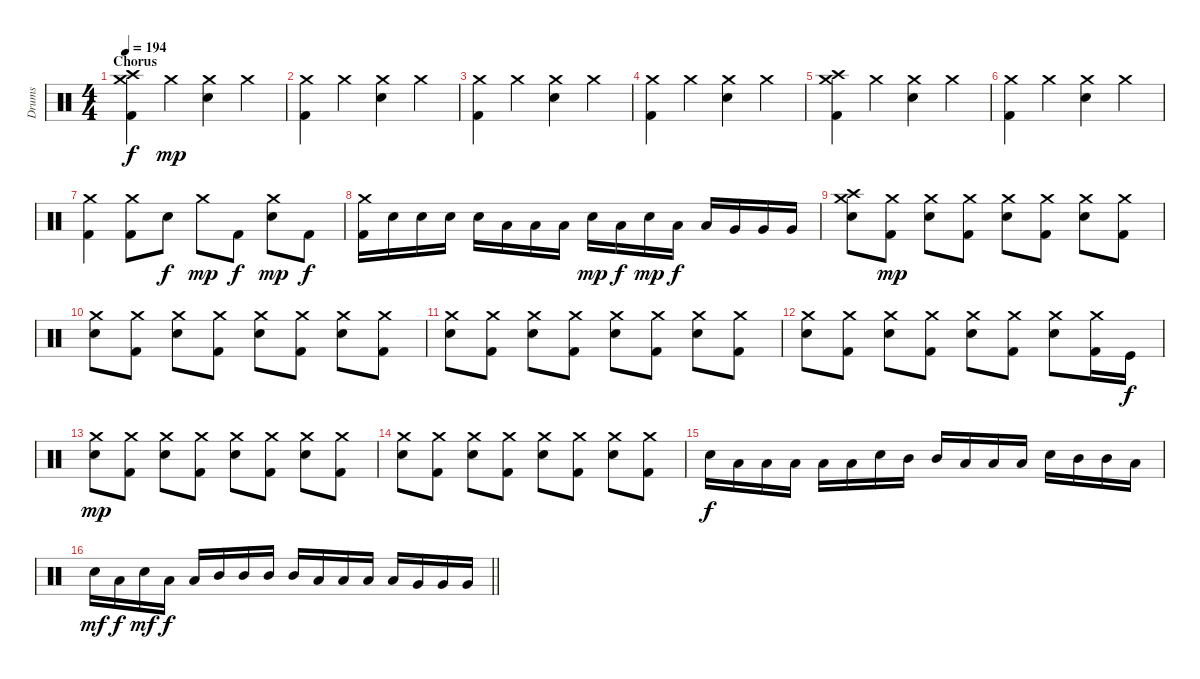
\track ("Drums" "Drums") {instrument percussion}
\staff {score}
\articulation defaults
\ts (4 4)
\section ("" "Chorus")
\tempo 194
\clef neutral
\ks c
("Crash medium (hit)" "Crash high (hit)" "Kick (hit) 2").4{dy f} "Crash medium (hit)".4{dy mp} ("Crash medium (hit)" "Snare (hit) 2").4 "Crash medium (hit)".4 |
("Crash medium (hit)" "Kick (hit) 2").4 "Crash medium (hit)".4 ("Crash medium (hit)" "Snare (hit) 2").4 "Crash medium (hit)".4 |
("Crash medium (hit)" "Kick (hit) 2").4 "Crash medium (hit)".4 ("Crash medium (hit)" "Snare (hit) 2").4 "Crash medium (hit)".4 |
("Crash medium (hit)" "Kick (hit) 2").4 "Crash medium (hit)".4 ("Crash medium (hit)" "Snare (hit) 2").4 "Crash medium (hit)".4 |
("Crash medium (hit)" "Crash high (hit)" "Kick (hit) 2").4 "Crash medium (hit)".4 ("Crash medium (hit)" "Snare (hit) 2").4 "Crash medium (hit)".4 |
("Crash medium (hit)" "Kick (hit) 2").4 "Crash medium (hit)".4 ("Crash medium (hit)" "Snare (hit) 2").4 "Crash medium (hit)".4 |
("Crash medium (hit)" "Kick (hit) 2").4 ("Crash medium (hit)" "Kick (hit) 2").8 "Snare (hit) 2".8{dy f} "Crash medium (hit)".8{dy mp} "Kick (hit) 2".8{dy f} ("Crash medium (hit)" "Snare (hit) 2").8{dy mp} "Kick (hit) 2".8{dy f} |
("Crash medium (hit)" "Kick (hit) 2").16 "Snare (hit) 2".16 "Snare (hit) 2".16 "Snare (hit) 2".16 "Snare (hit) 2".16 "Low Tom (hit)".16 "Low Tom (hit)".16 "Low Tom (hit)".16 "Snare (hit) 2".16{dy mp} "Low Tom (hit)".16{dy f} "Snare (hit) 2".16{dy mp} "Low Tom (hit)".16{dy f} "Low Tom (hit)".16 "Very Low Tom (hit)".16 "Very Low Tom (hit)".16 "Very Low Tom (hit)".16 |
("Crash medium (hit)" "Crash high (hit)" "Snare (hit) 2").8 ("Crash medium (hit)" "Kick (hit) 2").8{dy mp} ("Crash medium (hit)" "Snare (hit) 2").8 ("Crash medium (hit)" "Kick (hit) 2").8 ("Crash medium (hit)" "Snare (hit) 2").8 ("Crash medium (hit)" "Kick (hit) 2").8 ("Crash medium (hit)" "Snare (hit) 2").8 ("Crash medium (hit)" "Kick (hit) 2").8 |
("Crash medium (hit)" "Snare (hit) 2").8 ("Crash medium (hit)" "Kick (hit) 2").8 ("Crash medium (hit)" "Snare (hit) 2").8 ("Crash medium (hit)" "Kick (hit) 2").8 ("Crash medium (hit)" "Snare (hit) 2").8 ("Crash medium (hit)" "Kick (hit) 2").8 ("Crash medium (hit)" "Snare (hit) 2").8 ("Crash medium (hit)" "Kick (hit) 2").8 |
("Crash medium (hit)" "Snare (hit) 2").8 ("Crash medium (hit)" "Kick (hit) 2").8 ("Crash medium (hit)" "Snare (hit) 2").8 ("Crash medium (hit)" "Kick (hit) 2").8 ("Crash medium (hit)" "Snare (hit) 2").8 ("Crash medium (hit)" "Kick (hit) 2").8 ("Crash medium (hit)" "Snare (hit) 2").8 ("Crash medium (hit)" "Kick (hit) 2").8 |
("Crash medium (hit)" "Snare (hit) 2").8 ("Crash medium (hit)" "Kick (hit) 2").8 ("Crash medium (hit)" "Snare (hit) 2").8 ("Crash medium (hit)" "Kick (hit) 2").8 ("Crash medium (hit)" "Snare (hit) 2").8 ("Crash medium (hit)" "Kick (hit) 2").8 ("Crash medium (hit)" "Snare (hit) 2").8 ("Crash medium (hit)" "Kick (hit) 2").16 "Kick (hit)".16{dy f} |
("Crash medium (hit)" "Snare (hit) 2").8{dy mp} ("Crash medium (hit)" "Kick (hit) 2").8 ("Crash medium (hit)" "Snare (hit) 2").8 ("Crash medium (hit)" "Kick (hit) 2").8 ("Crash medium (hit)" "Snare (hit) 2").8 ("Crash medium (hit)" "Kick (hit) 2").8 ("Crash medium (hit)" "Snare (hit) 2").8 ("Crash medium (hit)" "Kick (hit) 2").8 |
("Crash medium (hit)" "Snare (hit) 2").8 ("Crash medium (hit)" "Kick (hit) 2").8 ("Crash medium (hit)" "Snare (hit) 2").8 ("Crash medium (hit)" "Kick (hit) 2").8 ("Crash medium (hit)" "Snare (hit) 2").8 ("Crash medium (hit)" "Kick (hit) 2").8 ("Crash medium (hit)" "Snare (hit) 2").8 ("Crash medium (hit)" "Kick (hit) 2").8 |
"Snare (hit) 2".16{dy f} "Low Tom (hit)".16 "Low Tom (hit)".16 "Low Tom (hit)".16 "Low Tom (hit)".16 "Low Tom (hit)".16 "Snare (hit) 2".16 "Mid Tom (hit)".16 "Mid Tom (hit)".16 "Low Tom (hit)".16 "Low Tom (hit)".16 "Low Tom (hit)".16 "Snare (hit) 2".16 "Mid Tom (hit)".16 "Mid Tom (hit)".16 "Low Tom (hit)".16 |
\barLineRight lightlight "Snare (hit) 2".16{dy mf} "Low Tom (hit)".16{dy f} "Snare (hit) 2".16{dy mf} "Low Tom (hit)".16{dy f} "Low Tom (hit)".16 "Mid Tom (hit)".16 "Mid Tom (hit)".16 "Mid Tom (hit)".16 "Mid Tom (hit)".16 "Low Tom (hit)".16 "Low Tom (hit)".16 "Low Tom (hit)".16 "Low Tom (hit)".16 "Very Low Tom (hit)".16 "Very Low Tom (hit)".16 "Very Low Tom (hit)".16
